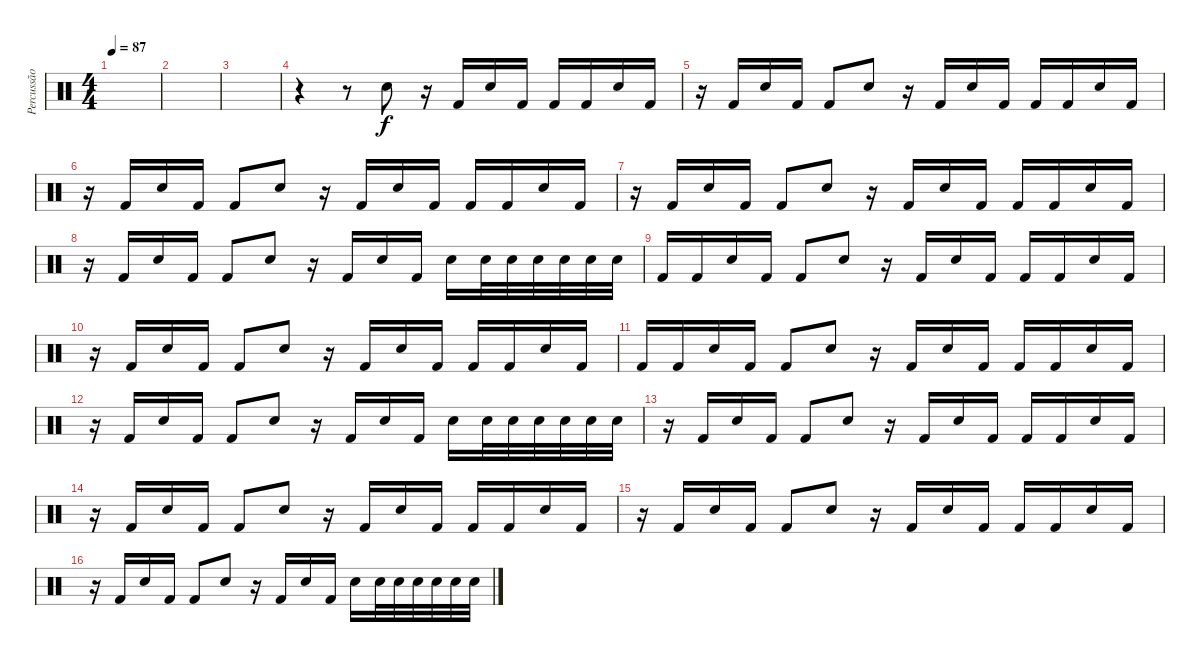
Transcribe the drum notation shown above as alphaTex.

\track ("Percussão" "Percussão") {instrument percussion}
\staff {score}
\articulation defaults
\ts (4 4)
\tempo 87
\clef neutral
\ks c
|
|
|
r.4 r.8 "Electric Snare (hit)".8 r.16 "Kick (hit) 2".16 "Electric Snare (hit)".16 "Kick (hit) 2".16 "Kick (hit) 2".16 "Kick (hit) 2".16 "Electric Snare (hit)".16 "Kick (hit) 2".16 |
r.16 "Kick (hit) 2".16 "Electric Snare (hit)".16 "Kick (hit) 2".16 "Kick (hit) 2".8 "Electric Snare (hit)".8 r.16 "Kick (hit) 2".16 "Electric Snare (hit)".16 "Kick (hit) 2".16 "Kick (hit) 2".16 "Kick (hit) 2".16 "Electric Snare (hit)".16 "Kick (hit) 2".16 |
r.16 "Kick (hit) 2".16 "Electric Snare (hit)".16 "Kick (hit) 2".16 "Kick (hit) 2".8 "Electric Snare (hit)".8 r.16 "Kick (hit) 2".16 "Electric Snare (hit)".16 "Kick (hit) 2".16 "Kick (hit) 2".16 "Kick (hit) 2".16 "Electric Snare (hit)".16 "Kick (hit) 2".16 |
r.16 "Kick (hit) 2".16 "Electric Snare (hit)".16 "Kick (hit) 2".16 "Kick (hit) 2".8 "Electric Snare (hit)".8 r.16 "Kick (hit) 2".16 "Electric Snare (hit)".16 "Kick (hit) 2".16 "Kick (hit) 2".16 "Kick (hit) 2".16 "Electric Snare (hit)".16 "Kick (hit) 2".16 |
r.16 "Kick (hit) 2".16 "Electric Snare (hit)".16 "Kick (hit) 2".16 "Kick (hit) 2".8 "Electric Snare (hit)".8 r.16 "Kick (hit) 2".16 "Electric Snare (hit)".16 "Kick (hit) 2".16 "Electric Snare (hit)".16 "Electric Snare (hit)".32 "Electric Snare (hit)".32 "Electric Snare (hit)".32 "Electric Snare (hit)".32 "Electric Snare (hit)".32 "Electric Snare (hit)".32 |
"Kick (hit) 2".16 "Kick (hit) 2".16 "Electric Snare (hit)".16 "Kick (hit) 2".16 "Kick (hit) 2".8 "Electric Snare (hit)".8 r.16 "Kick (hit) 2".16 "Electric Snare (hit)".16 "Kick (hit) 2".16 "Kick (hit) 2".16 "Kick (hit) 2".16 "Electric Snare (hit)".16 "Kick (hit) 2".16 |
r.16 "Kick (hit) 2".16 "Electric Snare (hit)".16 "Kick (hit) 2".16 "Kick (hit) 2".8 "Electric Snare (hit)".8 r.16 "Kick (hit) 2".16 "Electric Snare (hit)".16 "Kick (hit) 2".16 "Kick (hit) 2".16 "Kick (hit) 2".16 "Electric Snare (hit)".16 "Kick (hit) 2".16 |
"Kick (hit) 2".16 "Kick (hit) 2".16 "Electric Snare (hit)".16 "Kick (hit) 2".16 "Kick (hit) 2".8 "Electric Snare (hit)".8 r.16 "Kick (hit) 2".16 "Electric Snare (hit)".16 "Kick (hit) 2".16 "Kick (hit) 2".16 "Kick (hit) 2".16 "Electric Snare (hit)".16 "Kick (hit) 2".16 |
r.16 "Kick (hit) 2".16 "Electric Snare (hit)".16 "Kick (hit) 2".16 "Kick (hit) 2".8 "Electric Snare (hit)".8 r.16 "Kick (hit) 2".16 "Electric Snare (hit)".16 "Kick (hit) 2".16 "Electric Snare (hit)".16 "Electric Snare (hit)".32 "Electric Snare (hit)".32 "Electric Snare (hit)".32 "Electric Snare (hit)".32 "Electric Snare (hit)".32 "Electric Snare (hit)".32 |
r.16 "Kick (hit) 2".16 "Electric Snare (hit)".16 "Kick (hit) 2".16 "Kick (hit) 2".8 "Electric Snare (hit)".8 r.16 "Kick (hit) 2".16 "Electric Snare (hit)".16 "Kick (hit) 2".16 "Kick (hit) 2".16 "Kick (hit) 2".16 "Electric Snare (hit)".16 "Kick (hit) 2".16 |
r.16 "Kick (hit) 2".16 "Electric Snare (hit)".16 "Kick (hit) 2".16 "Kick (hit) 2".8 "Electric Snare (hit)".8 r.16 "Kick (hit) 2".16 "Electric Snare (hit)".16 "Kick (hit) 2".16 "Kick (hit) 2".16 "Kick (hit) 2".16 "Electric Snare (hit)".16 "Kick (hit) 2".16 |
r.16 "Kick (hit) 2".16 "Electric Snare (hit)".16 "Kick (hit) 2".16 "Kick (hit) 2".8 "Electric Snare (hit)".8 r.16 "Kick (hit) 2".16 "Electric Snare (hit)".16 "Kick (hit) 2".16 "Kick (hit) 2".16 "Kick (hit) 2".16 "Electric Snare (hit)".16 "Kick (hit) 2".16 |
r.16 "Kick (hit) 2".16 "Electric Snare (hit)".16 "Kick (hit) 2".16 "Kick (hit) 2".8 "Electric Snare (hit)".8 r.16 "Kick (hit) 2".16 "Electric Snare (hit)".16 "Kick (hit) 2".16 "Electric Snare (hit)".16 "Electric Snare (hit)".32 "Electric Snare (hit)".32 "Electric Snare (hit)".32 "Electric Snare (hit)".32 "Electric Snare (hit)".32 "Electric Snare (hit)".32
